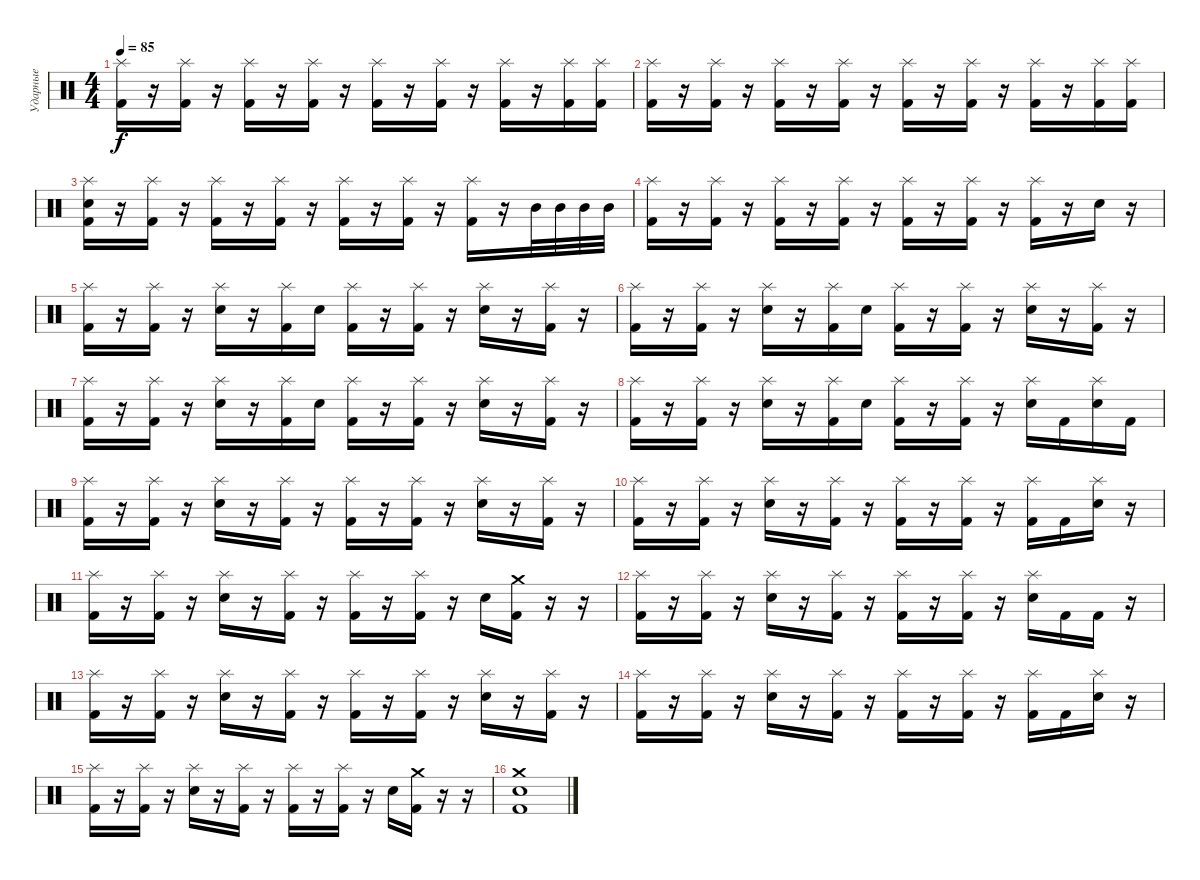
\track ("Ударные" "Ударные") {instrument percussion}
\staff {score}
\articulation defaults
\ts (4 4)
\tempo 85
\clef neutral
\ks c
("Splash (hit)" "Kick (hit) 2").16{dy f} r.16 ("Splash (hit)" "Kick (hit) 2").16 r.16 ("Splash (hit)" "Kick (hit) 2").16 r.16 ("Splash (hit)" "Kick (hit) 2").16 r.16 ("Splash (hit)" "Kick (hit) 2").16 r.16 ("Splash (hit)" "Kick (hit) 2").16 r.16 ("Splash (hit)" "Kick (hit) 2").16 r.16 ("Splash (hit)" "Kick (hit) 2").16 ("Splash (hit)" "Kick (hit) 2").16 |
("Splash (hit)" "Kick (hit) 2").16 r.16 ("Splash (hit)" "Kick (hit) 2").16 r.16 ("Splash (hit)" "Kick (hit) 2").16 r.16 ("Splash (hit)" "Kick (hit) 2").16 r.16 ("Splash (hit)" "Kick (hit) 2").16 r.16 ("Splash (hit)" "Kick (hit) 2").16 r.16 ("Splash (hit)" "Kick (hit) 2").16 r.16 ("Splash (hit)" "Kick (hit) 2").16 ("Splash (hit)" "Kick (hit) 2").16 |
("Splash (hit)" "Snare (hit) 2" "Kick (hit) 2").16 r.16 ("Splash (hit)" "Kick (hit) 2").16 r.16 ("Splash (hit)" "Kick (hit) 2").16 r.16 ("Splash (hit)" "Kick (hit) 2").16 r.16 ("Splash (hit)" "Kick (hit) 2").16 r.16 ("Splash (hit)" "Kick (hit) 2").16 r.16 ("Splash (hit)" "Kick (hit) 2").16 r.16 "Mid Tom (hit)".32 "Mid Tom (hit)".32 "Mid Tom (hit)".32 "Mid Tom (hit)".32 |
("Splash (hit)" "Kick (hit) 2").16 r.16 ("Splash (hit)" "Kick (hit) 2").16 r.16 ("Splash (hit)" "Kick (hit) 2").16 r.16 ("Splash (hit)" "Kick (hit) 2").16 r.16 ("Splash (hit)" "Kick (hit) 2").16 r.16 ("Splash (hit)" "Kick (hit) 2").16 r.16 ("Splash (hit)" "Kick (hit) 2").16 r.16 "Snare (hit) 2".16 r.16 |
("Splash (hit)" "Kick (hit) 2").16 r.16 ("Splash (hit)" "Kick (hit) 2").16 r.16 ("Splash (hit)" "Snare (hit) 2").16 r.16 ("Splash (hit)" "Kick (hit) 2").16 "Snare (hit) 2".16 ("Splash (hit)" "Kick (hit) 2").16 r.16 ("Splash (hit)" "Kick (hit) 2").16 r.16 ("Splash (hit)" "Snare (hit) 2").16 r.16 ("Splash (hit)" "Kick (hit) 2").16 r.16 |
("Splash (hit)" "Kick (hit) 2").16 r.16 ("Splash (hit)" "Kick (hit) 2").16 r.16 ("Splash (hit)" "Snare (hit) 2").16 r.16 ("Splash (hit)" "Kick (hit) 2").16 "Snare (hit) 2".16 ("Splash (hit)" "Kick (hit) 2").16 r.16 ("Splash (hit)" "Kick (hit) 2").16 r.16 ("Splash (hit)" "Snare (hit) 2").16 r.16 ("Splash (hit)" "Kick (hit) 2").16 r.16 |
("Splash (hit)" "Kick (hit) 2").16 r.16 ("Splash (hit)" "Kick (hit) 2").16 r.16 ("Splash (hit)" "Snare (hit) 2").16 r.16 ("Splash (hit)" "Kick (hit) 2").16 "Snare (hit) 2".16 ("Splash (hit)" "Kick (hit) 2").16 r.16 ("Splash (hit)" "Kick (hit) 2").16 r.16 ("Splash (hit)" "Snare (hit) 2").16 r.16 ("Splash (hit)" "Kick (hit) 2").16 r.16 |
("Splash (hit)" "Kick (hit) 2").16 r.16 ("Splash (hit)" "Kick (hit) 2").16 r.16 ("Splash (hit)" "Snare (hit) 2").16 r.16 ("Splash (hit)" "Kick (hit) 2").16 "Snare (hit) 2".16 ("Splash (hit)" "Kick (hit) 2").16 r.16 ("Splash (hit)" "Kick (hit) 2").16 r.16 ("Splash (hit)" "Snare (hit) 2").16 "Kick (hit) 2".16 ("Splash (hit)" "Snare (hit) 2").16 "Kick (hit) 2".16 |
("Splash (hit)" "Kick (hit) 2").16 r.16 ("Splash (hit)" "Kick (hit) 2").16 r.16 ("Splash (hit)" "Snare (hit) 2").16 r.16 ("Splash (hit)" "Kick (hit) 2").16 r.16 ("Splash (hit)" "Kick (hit) 2").16 r.16 ("Splash (hit)" "Kick (hit) 2").16 r.16 ("Splash (hit)" "Snare (hit) 2").16 r.16 ("Splash (hit)" "Kick (hit) 2").16 r.16 |
("Splash (hit)" "Kick (hit) 2").16 r.16 ("Splash (hit)" "Kick (hit) 2").16 r.16 ("Splash (hit)" "Snare (hit) 2").16 r.16 ("Splash (hit)" "Kick (hit) 2").16 r.16 ("Splash (hit)" "Kick (hit) 2").16 r.16 ("Splash (hit)" "Kick (hit) 2").16 r.16 ("Splash (hit)" "Kick (hit) 2").16 "Kick (hit) 2".16 ("Splash (hit)" "Snare (hit) 2").16 r.16 |
("Splash (hit)" "Kick (hit) 2").16 r.16 ("Splash (hit)" "Kick (hit) 2").16 r.16 ("Splash (hit)" "Snare (hit) 2").16 r.16 ("Splash (hit)" "Kick (hit) 2").16 r.16 ("Splash (hit)" "Kick (hit) 2").16 r.16 ("Splash (hit)" "Kick (hit) 2").16 r.16 "Snare (hit) 2".16 ("Crash medium (hit)" "Kick (hit) 2").16 r.16 r.16 |
("Splash (hit)" "Kick (hit) 2").16 r.16 ("Splash (hit)" "Kick (hit) 2").16 r.16 ("Splash (hit)" "Snare (hit) 2").16 r.16 ("Splash (hit)" "Kick (hit) 2").16 r.16 ("Splash (hit)" "Kick (hit) 2").16 r.16 ("Splash (hit)" "Kick (hit) 2").16 r.16 ("Splash (hit)" "Snare (hit) 2").16 "Kick (hit) 2".16 "Kick (hit) 2".16 r.16 |
("Splash (hit)" "Kick (hit) 2").16 r.16 ("Splash (hit)" "Kick (hit) 2").16 r.16 ("Splash (hit)" "Snare (hit) 2").16 r.16 ("Splash (hit)" "Kick (hit) 2").16 r.16 ("Splash (hit)" "Kick (hit) 2").16 r.16 ("Splash (hit)" "Kick (hit) 2").16 r.16 ("Splash (hit)" "Snare (hit) 2").16 r.16 ("Splash (hit)" "Kick (hit) 2").16 r.16 |
("Splash (hit)" "Kick (hit) 2").16 r.16 ("Splash (hit)" "Kick (hit) 2").16 r.16 ("Splash (hit)" "Snare (hit) 2").16 r.16 ("Splash (hit)" "Kick (hit) 2").16 r.16 ("Splash (hit)" "Kick (hit) 2").16 r.16 ("Splash (hit)" "Kick (hit) 2").16 r.16 ("Splash (hit)" "Kick (hit) 2").16 "Kick (hit) 2".16 ("Splash (hit)" "Snare (hit) 2").16 r.16 |
("Splash (hit)" "Kick (hit) 2").16 r.16 ("Splash (hit)" "Kick (hit) 2").16 r.16 ("Splash (hit)" "Snare (hit) 2").16 r.16 ("Splash (hit)" "Kick (hit) 2").16 r.16 ("Splash (hit)" "Kick (hit) 2").16 r.16 ("Splash (hit)" "Kick (hit) 2").16 r.16 "Snare (hit) 2".16 ("Crash medium (hit)" "Kick (hit) 2").16 r.16 r.16 |
("Crash medium (hit)" "Snare (hit) 2" "Kick (hit) 2").1
